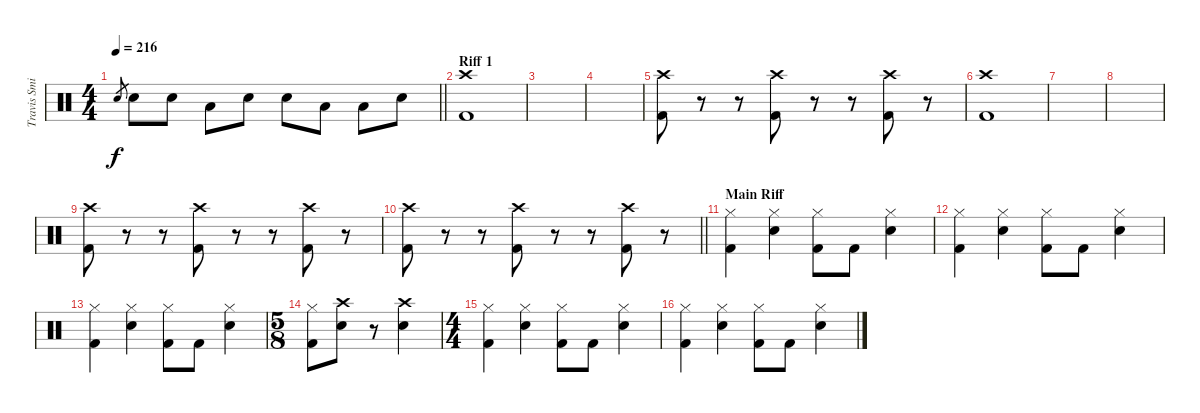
\track ("Travis Smith (Drums)" "Travis Smi") {instrument percussion}
\staff {score}
\articulation defaults
\ts (4 4)
\tempo 216
\clef neutral
\barLineRight lightlight
\ks c "Electric Snare (hit)".8{gr dy f} "Electric Snare (hit)".8 "Electric Snare (hit)".8 "Low Floor Tom (hit)".8 "Electric Snare (hit)".8 "Electric Snare (hit)".8 "Low Floor Tom (hit)".8 "Low Floor Tom (hit)".8 "Electric Snare (hit)".8
|
\section ("" "Riff 1")
("Crash high (hit)" "Kick (hit) 2").1 |
|
|
("Crash high (hit)" "Kick (hit) 2").8 r.8 r.8 ("Crash high (hit)" "Kick (hit) 2").8 r.8 r.8 ("Crash high (hit)" "Kick (hit) 2").8 r.8 |
("Crash high (hit)" "Kick (hit) 2").1 |
|
|
("Crash high (hit)" "Kick (hit) 2").8 r.8 r.8 ("Crash high (hit)" "Kick (hit) 2").8 r.8 r.8 ("Crash high (hit)" "Kick (hit) 2").8 r.8 |
\barLineRight lightlight
("Crash high (hit)" "Kick (hit) 2").8 r.8 r.8 ("Crash high (hit)" "Kick (hit) 2").8 r.8 r.8 ("Crash high (hit)" "Kick (hit) 2").8 r.8 |
\section ("" "Main Riff")
("Hi-Hat (closed)" "Kick (hit) 2").4 ("Hi-Hat (closed)" "Electric Snare (hit)").4 ("Hi-Hat (closed)" "Kick (hit) 2").8 "Kick (hit) 2".8 ("Hi-Hat (closed)" "Electric Snare (hit)").4 |
("Hi-Hat (closed)" "Kick (hit) 2").4 ("Hi-Hat (closed)" "Electric Snare (hit)").4 ("Hi-Hat (closed)" "Kick (hit) 2").8 "Kick (hit) 2".8 ("Hi-Hat (closed)" "Electric Snare (hit)").4 |
("Hi-Hat (closed)" "Kick (hit) 2").4 ("Hi-Hat (closed)" "Electric Snare (hit)").4 ("Hi-Hat (closed)" "Kick (hit) 2").8 "Kick (hit) 2".8 ("Hi-Hat (closed)" "Electric Snare (hit)").4 |
\ts (5 8)
("Hi-Hat (closed)" "Kick (hit) 2").8 ("Crash high (hit)" "Electric Snare (hit)").8 r.8 ("Crash high (hit)" "Electric Snare (hit)").4 |
\ts (4 4)
("Hi-Hat (closed)" "Kick (hit) 2").4 ("Hi-Hat (closed)" "Electric Snare (hit)").4 ("Hi-Hat (closed)" "Kick (hit) 2").8 "Kick (hit) 2".8 ("Hi-Hat (closed)" "Electric Snare (hit)").4 |
("Hi-Hat (closed)" "Kick (hit) 2").4 ("Hi-Hat (closed)" "Electric Snare (hit)").4 ("Hi-Hat (closed)" "Kick (hit) 2").8 "Kick (hit) 2".8 ("Hi-Hat (closed)" "Electric Snare (hit)").4
